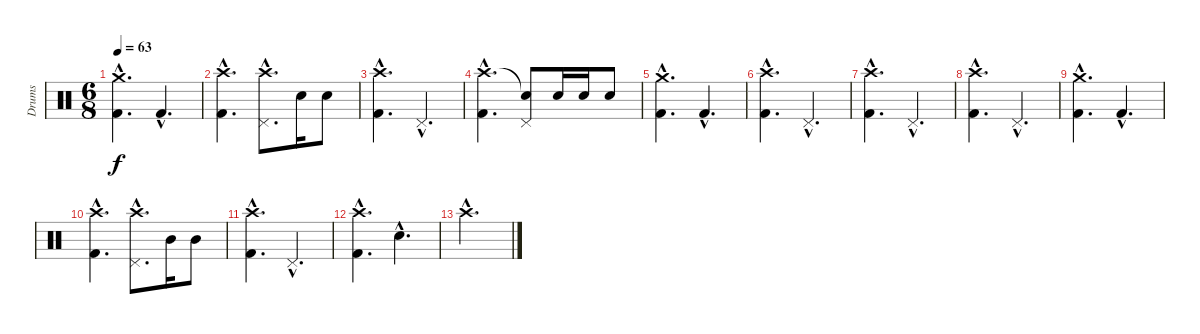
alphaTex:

\track ("Drums" "Drums") {instrument percussion}
\staff {score}
\articulation defaults
\ts (6 8)
\tempo 63
\clef neutral
\ks c
("Crash medium (hit)"{hac} "Kick (hit) 2"{hac}).4{d dy f} "Kick (hit) 2"{hac}.4{d} |
("Crash high (hit)"{hac} "Kick (hit) 2"{hac}).4{d} ("Crash high (hit)"{hac} "Pedal Hi-Hat (hit)"{hac}).8{d} "Electric Snare (hit)".16 "Electric Snare (hit)".8 |
("Crash high (hit)"{hac} "Kick (hit) 2"{hac}).4{d} "Pedal Hi-Hat (hit)"{hac}.4{d} |
("Crash high (hit)"{hac} "Kick (hit) 2"{hac}).4{d} ("Snare (hit)"{t} "Pedal Hi-Hat (hit)").8 "Electric Snare (hit)".16 "Electric Snare (hit)".16 "Electric Snare (hit)".8 |
("Crash medium (hit)"{hac} "Kick (hit) 2"{hac}).4{d} "Kick (hit) 2"{hac}.4{d} |
("Crash high (hit)"{hac} "Kick (hit) 2"{hac}).4{d} "Pedal Hi-Hat (hit)"{hac}.4{d} |
("Crash high (hit)"{hac} "Kick (hit) 2"{hac}).4{d} "Pedal Hi-Hat (hit)"{hac}.4{d} |
("Crash high (hit)"{hac} "Kick (hit) 2"{hac}).4{d} "Pedal Hi-Hat (hit)"{hac}.4{d} |
("Crash medium (hit)"{hac} "Kick (hit) 2"{hac}).4{d} "Kick (hit) 2"{hac}.4{d} |
("Crash high (hit)"{hac} "Kick (hit) 2"{hac}).4{d} ("Crash high (hit)"{hac} "Pedal Hi-Hat (hit)"{hac}).8{d} "Mid Tom (hit)".16 "Mid Tom (hit)".8 |
("Crash high (hit)"{hac} "Kick (hit) 2"{hac}).4{d} "Pedal Hi-Hat (hit)"{hac}.4{d} |
("Crash high (hit)"{hac} "Kick (hit) 2"{hac}).4{d} "Electric Snare (hit)"{hac}.4{d} |
"Crash high (hit)"{hac}.2{d}
